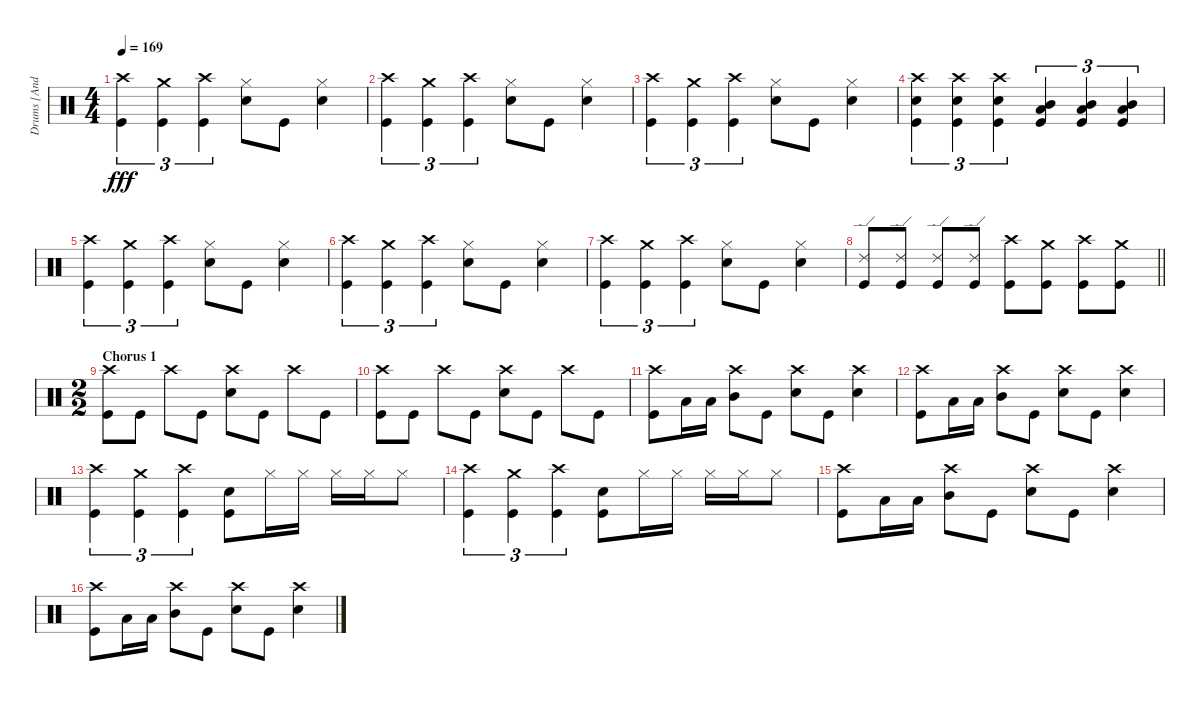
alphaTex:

\track ("Drums [Andrew Forsman]" "Drums [And") {instrument percussion}
\staff {score}
\articulation defaults
\ts (4 4)
\tempo 169
\clef neutral
\ks c
("Crash high (hit)" "Kick (hit)").4{tu (3 2) dy fff} ("Crash medium (hit)" "Kick (hit)").4{tu (3 2)} ("Crash high (hit)" "Kick (hit)").4{tu (3 2)} ("Snare (hit) 2" "Hi-Hat (closed)").8 "Kick (hit)".8 ("Snare (hit) 2" "Hi-Hat (closed)").4 |
("Crash high (hit)" "Kick (hit)").4{tu (3 2)} ("Crash medium (hit)" "Kick (hit)").4{tu (3 2)} ("Crash high (hit)" "Kick (hit)").4{tu (3 2)} ("Snare (hit) 2" "Hi-Hat (closed)").8 "Kick (hit)".8 ("Snare (hit) 2" "Hi-Hat (closed)").4 |
("Crash high (hit)" "Kick (hit)").4{tu (3 2)} ("Crash medium (hit)" "Kick (hit)").4{tu (3 2)} ("Crash high (hit)" "Kick (hit)").4{tu (3 2)} ("Snare (hit) 2" "Hi-Hat (closed)").8 "Kick (hit)".8 ("Snare (hit) 2" "Hi-Hat (closed)").4 |
("Crash high (hit)" "Snare (hit) 2" "Kick (hit)").4{tu (3 2)} ("Crash high (hit)" "Snare (hit) 2" "Kick (hit)").4{tu (3 2)} ("Crash high (hit)" "Snare (hit) 2" "Kick (hit)").4{tu (3 2)} ("Mid Tom (hit)" "Low Tom (hit)" "Kick (hit)").4{tu (3 2)} ("Mid Tom (hit)" "Low Tom (hit)" "Kick (hit)").4{tu (3 2)} ("Mid Tom (hit)" "Low Tom (hit)" "Kick (hit)").4{tu (3 2)} |
("Crash high (hit)" "Kick (hit)").4{tu (3 2)} ("Crash medium (hit)" "Kick (hit)").4{tu (3 2)} ("Crash high (hit)" "Kick (hit)").4{tu (3 2)} ("Snare (hit) 2" "Hi-Hat (closed)").8 "Kick (hit)".8 ("Snare (hit) 2" "Hi-Hat (closed)").4 |
("Crash high (hit)" "Kick (hit)").4{tu (3 2)} ("Crash medium (hit)" "Kick (hit)").4{tu (3 2)} ("Crash high (hit)" "Kick (hit)").4{tu (3 2)} ("Snare (hit) 2" "Hi-Hat (closed)").8 "Kick (hit)".8 ("Snare (hit) 2" "Hi-Hat (closed)").4 |
("Crash high (hit)" "Kick (hit)").4{tu (3 2)} ("Crash medium (hit)" "Kick (hit)").4{tu (3 2)} ("Crash high (hit)" "Kick (hit)").4{tu (3 2)} ("Snare (hit) 2" "Hi-Hat (closed)").8 "Kick (hit)".8 ("Snare (hit) 2" "Hi-Hat (closed)").4 |
\barLineRight lightlight
("Ride (edge) 2" "Kick (hit)").8 ("Ride (edge) 2" "Kick (hit)").8 ("Ride (edge) 2" "Kick (hit)").8 ("Ride (edge) 2" "Kick (hit)").8 ("Crash high (hit)" "Kick (hit)").8 ("Crash medium (hit)" "Kick (hit)").8 ("Crash high (hit)" "Kick (hit)").8 ("Crash medium (hit)" "Kick (hit)").8 |
\ts (2 2)
\section ("" "Chorus 1")
("Crash high (hit)" "Kick (hit)").8 "Kick (hit)".8 "Crash high (hit)".8 "Kick (hit)".8 ("Crash high (hit)" "Snare (hit) 2").8 "Kick (hit)".8 "Crash high (hit)".8 "Kick (hit)".8 |
("Crash high (hit)" "Kick (hit)").8 "Kick (hit)".8 "Crash high (hit)".8 "Kick (hit)".8 ("Crash high (hit)" "Snare (hit) 2").8 "Kick (hit)".8 "Crash high (hit)".8 "Kick (hit)".8 |
("Kick (hit)" "Crash high (hit)").8 "Low Tom (hit)".16 "Low Tom (hit)".16 ("Mid Tom (hit)" "Crash high (hit)").8 "Kick (hit)".8 ("Snare (hit) 2" "Crash high (hit)").8 "Kick (hit)".8 ("Snare (hit) 2" "Crash high (hit)").4 |
("Kick (hit)" "Crash high (hit)").8 "Low Tom (hit)".16 "Low Tom (hit)".16 ("Mid Tom (hit)" "Crash high (hit)").8 "Kick (hit)".8 ("Snare (hit) 2" "Crash high (hit)").8 "Kick (hit)".8 ("Snare (hit) 2" "Crash high (hit)").4 |
("Kick (hit)" "Crash high (hit)").4{tu (3 2)} ("Kick (hit)" "Crash medium (hit)").4{tu (3 2)} ("Kick (hit)" "Crash high (hit)").4{tu (3 2)} ("Snare (hit) 2" "Kick (hit)").8 "Hi-Hat (closed)".16 "Hi-Hat (closed)".16 "Hi-Hat (closed)".16 "Hi-Hat (closed)".16 "Hi-Hat (closed)".8 |
("Kick (hit)" "Crash high (hit)").4{tu (3 2)} ("Kick (hit)" "Crash medium (hit)").4{tu (3 2)} ("Kick (hit)" "Crash high (hit)").4{tu (3 2)} ("Snare (hit) 2" "Kick (hit)").8 "Hi-Hat (closed)".16 "Hi-Hat (closed)".16 "Hi-Hat (closed)".16 "Hi-Hat (closed)".16 "Hi-Hat (closed)".8 |
("Kick (hit)" "Crash high (hit)").8 "Low Tom (hit)".16 "Low Tom (hit)".16 ("Mid Tom (hit)" "Crash high (hit)").8 "Kick (hit)".8 ("Snare (hit) 2" "Crash high (hit)").8 "Kick (hit)".8 ("Snare (hit) 2" "Crash high (hit)").4 |
("Kick (hit)" "Crash high (hit)").8 "Low Tom (hit)".16 "Low Tom (hit)".16 ("Mid Tom (hit)" "Crash high (hit)").8 "Kick (hit)".8 ("Snare (hit) 2" "Crash high (hit)").8 "Kick (hit)".8 ("Snare (hit) 2" "Crash high (hit)").4
